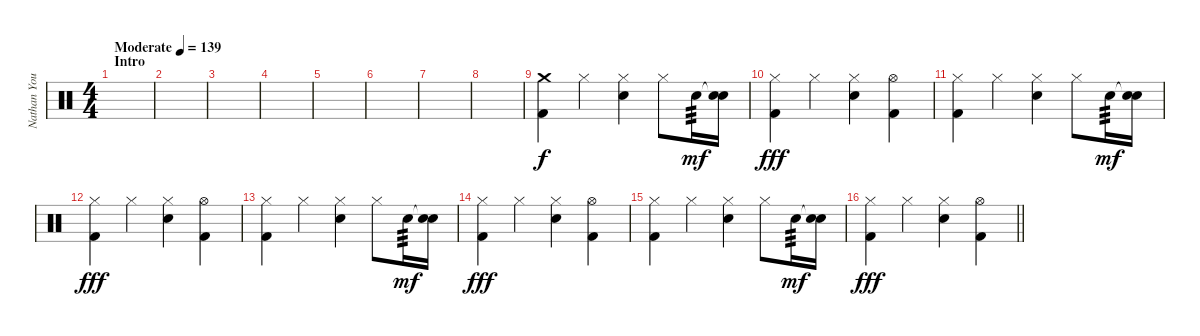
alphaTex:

\track ("Nathan Young" "Nathan You") {instrument percussion}
\staff {score}
\articulation defaults
\ts (4 4)
\section ("" "Intro")
\tempo (139 "Moderate")
\clef neutral
\ks c
|
|
|
|
|
|
|
|
("Crash medium (hit)" "Kick (hit) 2").4 "Hi-Hat (closed)".4 ("Hi-Hat (closed)" "Electric Snare (hit)").4 "Hi-Hat (closed)".8 "Electric Snare (hit)".16{tp 3 dy mf} ("Snare (hit)"{t} "Electric Snare (hit)").16 |
("Hi-Hat (closed)" "Kick (hit) 2").4{dy fff} "Hi-Hat (closed)".4 ("Hi-Hat (closed)" "Electric Snare (hit)").4 ("Hi-Hat (open)" "Kick (hit) 2").4 |
("Hi-Hat (closed)" "Kick (hit) 2").4 "Hi-Hat (closed)".4 ("Hi-Hat (closed)" "Electric Snare (hit)").4 "Hi-Hat (closed)".8 "Electric Snare (hit)".16{tp 3 dy mf} ("Snare (hit)"{t} "Electric Snare (hit)").16 |
("Hi-Hat (closed)" "Kick (hit) 2").4{dy fff} "Hi-Hat (closed)".4 ("Hi-Hat (closed)" "Electric Snare (hit)").4 ("Hi-Hat (open)" "Kick (hit) 2").4 |
("Hi-Hat (closed)" "Kick (hit) 2").4 "Hi-Hat (closed)".4 ("Hi-Hat (closed)" "Electric Snare (hit)").4 "Hi-Hat (closed)".8 "Electric Snare (hit)".16{tp 3 dy mf} ("Snare (hit)"{t} "Electric Snare (hit)").16 |
("Hi-Hat (closed)" "Kick (hit) 2").4{dy fff} "Hi-Hat (closed)".4 ("Hi-Hat (closed)" "Electric Snare (hit)").4 ("Hi-Hat (open)" "Kick (hit) 2").4 |
("Hi-Hat (closed)" "Kick (hit) 2").4 "Hi-Hat (closed)".4 ("Hi-Hat (closed)" "Electric Snare (hit)").4 "Hi-Hat (closed)".8 "Electric Snare (hit)".16{tp 3 dy mf} ("Snare (hit)"{t} "Electric Snare (hit)").16 |
\barLineRight lightlight
("Hi-Hat (closed)" "Kick (hit) 2").4{dy fff} "Hi-Hat (closed)".4 ("Hi-Hat (closed)" "Electric Snare (hit)").4 ("Hi-Hat (open)" "Kick (hit) 2").4
